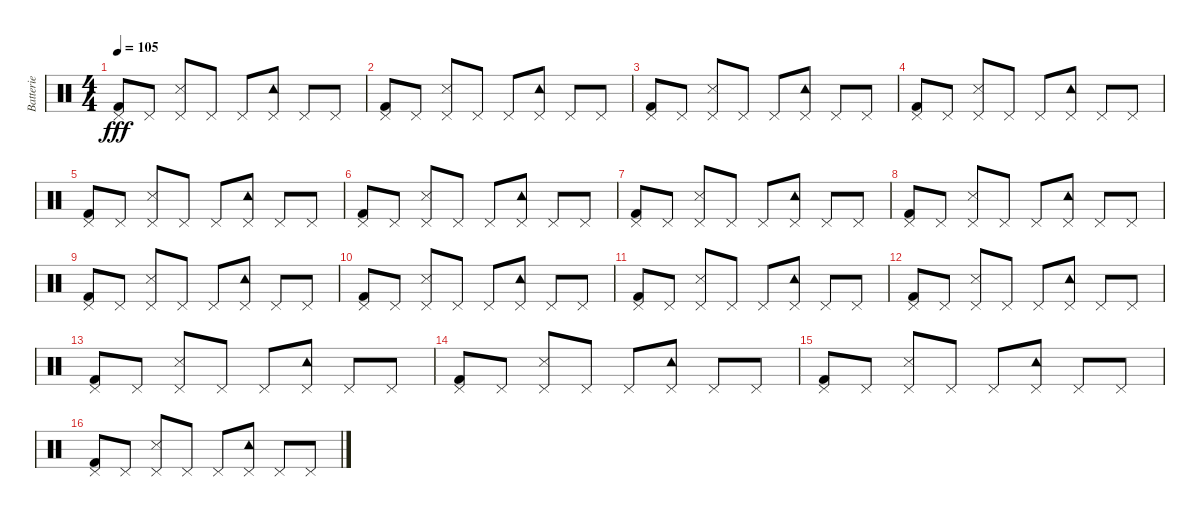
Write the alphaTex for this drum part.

\track ("Batterie" "Batterie") {instrument percussion}
\staff {score}
\articulation defaults
\ts (4 4)
\tempo 105
\clef neutral
\ks c
("Pedal Hi-Hat (hit)" "Kick (hit) 2").8{dy fff} "Pedal Hi-Hat (hit)".8 ("Pedal Hi-Hat (hit)" "Snare (side stick) 3").8 "Pedal Hi-Hat (hit)".8 "Pedal Hi-Hat (hit)".8 ("Pedal Hi-Hat (hit)" "Tambourine (hit)").8 "Pedal Hi-Hat (hit)".8 "Pedal Hi-Hat (hit)".8 |
("Pedal Hi-Hat (hit)" "Kick (hit) 2").8 "Pedal Hi-Hat (hit)".8 ("Pedal Hi-Hat (hit)" "Snare (side stick) 3").8 "Pedal Hi-Hat (hit)".8 "Pedal Hi-Hat (hit)".8 ("Pedal Hi-Hat (hit)" "Tambourine (hit)").8 "Pedal Hi-Hat (hit)".8 "Pedal Hi-Hat (hit)".8 |
("Pedal Hi-Hat (hit)" "Kick (hit) 2").8 "Pedal Hi-Hat (hit)".8 ("Pedal Hi-Hat (hit)" "Snare (side stick) 3").8 "Pedal Hi-Hat (hit)".8 "Pedal Hi-Hat (hit)".8 ("Pedal Hi-Hat (hit)" "Tambourine (hit)").8 "Pedal Hi-Hat (hit)".8 "Pedal Hi-Hat (hit)".8 |
("Pedal Hi-Hat (hit)" "Kick (hit) 2").8 "Pedal Hi-Hat (hit)".8 ("Pedal Hi-Hat (hit)" "Snare (side stick) 3").8 "Pedal Hi-Hat (hit)".8 "Pedal Hi-Hat (hit)".8 ("Pedal Hi-Hat (hit)" "Tambourine (hit)").8 "Pedal Hi-Hat (hit)".8 "Pedal Hi-Hat (hit)".8 |
("Pedal Hi-Hat (hit)" "Kick (hit) 2").8 "Pedal Hi-Hat (hit)".8 ("Pedal Hi-Hat (hit)" "Snare (side stick) 3").8 "Pedal Hi-Hat (hit)".8 "Pedal Hi-Hat (hit)".8 ("Pedal Hi-Hat (hit)" "Tambourine (hit)").8 "Pedal Hi-Hat (hit)".8 "Pedal Hi-Hat (hit)".8 |
("Pedal Hi-Hat (hit)" "Kick (hit) 2").8 "Pedal Hi-Hat (hit)".8 ("Pedal Hi-Hat (hit)" "Snare (side stick) 3").8 "Pedal Hi-Hat (hit)".8 "Pedal Hi-Hat (hit)".8 ("Pedal Hi-Hat (hit)" "Tambourine (hit)").8 "Pedal Hi-Hat (hit)".8 "Pedal Hi-Hat (hit)".8 |
("Pedal Hi-Hat (hit)" "Kick (hit) 2").8 "Pedal Hi-Hat (hit)".8 ("Pedal Hi-Hat (hit)" "Snare (side stick) 3").8 "Pedal Hi-Hat (hit)".8 "Pedal Hi-Hat (hit)".8 ("Pedal Hi-Hat (hit)" "Tambourine (hit)").8 "Pedal Hi-Hat (hit)".8 "Pedal Hi-Hat (hit)".8 |
("Pedal Hi-Hat (hit)" "Kick (hit) 2").8 "Pedal Hi-Hat (hit)".8 ("Pedal Hi-Hat (hit)" "Snare (side stick) 3").8 "Pedal Hi-Hat (hit)".8 "Pedal Hi-Hat (hit)".8 ("Pedal Hi-Hat (hit)" "Tambourine (hit)").8 "Pedal Hi-Hat (hit)".8 "Pedal Hi-Hat (hit)".8 |
("Pedal Hi-Hat (hit)" "Kick (hit) 2").8 "Pedal Hi-Hat (hit)".8 ("Pedal Hi-Hat (hit)" "Snare (side stick) 3").8 "Pedal Hi-Hat (hit)".8 "Pedal Hi-Hat (hit)".8 ("Pedal Hi-Hat (hit)" "Tambourine (hit)").8 "Pedal Hi-Hat (hit)".8 "Pedal Hi-Hat (hit)".8 |
("Pedal Hi-Hat (hit)" "Kick (hit) 2").8 "Pedal Hi-Hat (hit)".8 ("Pedal Hi-Hat (hit)" "Snare (side stick) 3").8 "Pedal Hi-Hat (hit)".8 "Pedal Hi-Hat (hit)".8 ("Pedal Hi-Hat (hit)" "Tambourine (hit)").8 "Pedal Hi-Hat (hit)".8 "Pedal Hi-Hat (hit)".8 |
("Pedal Hi-Hat (hit)" "Kick (hit) 2").8 "Pedal Hi-Hat (hit)".8 ("Pedal Hi-Hat (hit)" "Snare (side stick) 3").8 "Pedal Hi-Hat (hit)".8 "Pedal Hi-Hat (hit)".8 ("Pedal Hi-Hat (hit)" "Tambourine (hit)").8 "Pedal Hi-Hat (hit)".8 "Pedal Hi-Hat (hit)".8 |
("Pedal Hi-Hat (hit)" "Kick (hit) 2").8 "Pedal Hi-Hat (hit)".8 ("Pedal Hi-Hat (hit)" "Snare (side stick) 3").8 "Pedal Hi-Hat (hit)".8 "Pedal Hi-Hat (hit)".8 ("Pedal Hi-Hat (hit)" "Tambourine (hit)").8 "Pedal Hi-Hat (hit)".8 "Pedal Hi-Hat (hit)".8 |
("Pedal Hi-Hat (hit)" "Kick (hit) 2").8 "Pedal Hi-Hat (hit)".8 ("Pedal Hi-Hat (hit)" "Snare (side stick) 3").8 "Pedal Hi-Hat (hit)".8 "Pedal Hi-Hat (hit)".8 ("Pedal Hi-Hat (hit)" "Tambourine (hit)").8 "Pedal Hi-Hat (hit)".8 "Pedal Hi-Hat (hit)".8 |
("Pedal Hi-Hat (hit)" "Kick (hit) 2").8 "Pedal Hi-Hat (hit)".8 ("Pedal Hi-Hat (hit)" "Snare (side stick) 3").8 "Pedal Hi-Hat (hit)".8 "Pedal Hi-Hat (hit)".8 ("Pedal Hi-Hat (hit)" "Tambourine (hit)").8 "Pedal Hi-Hat (hit)".8 "Pedal Hi-Hat (hit)".8 |
("Pedal Hi-Hat (hit)" "Kick (hit) 2").8 "Pedal Hi-Hat (hit)".8 ("Pedal Hi-Hat (hit)" "Snare (side stick) 3").8 "Pedal Hi-Hat (hit)".8 "Pedal Hi-Hat (hit)".8 ("Pedal Hi-Hat (hit)" "Tambourine (hit)").8 "Pedal Hi-Hat (hit)".8 "Pedal Hi-Hat (hit)".8 |
("Pedal Hi-Hat (hit)" "Kick (hit) 2").8 "Pedal Hi-Hat (hit)".8 ("Pedal Hi-Hat (hit)" "Snare (side stick) 3").8 "Pedal Hi-Hat (hit)".8 "Pedal Hi-Hat (hit)".8 ("Pedal Hi-Hat (hit)" "Tambourine (hit)").8 "Pedal Hi-Hat (hit)".8 "Pedal Hi-Hat (hit)".8
